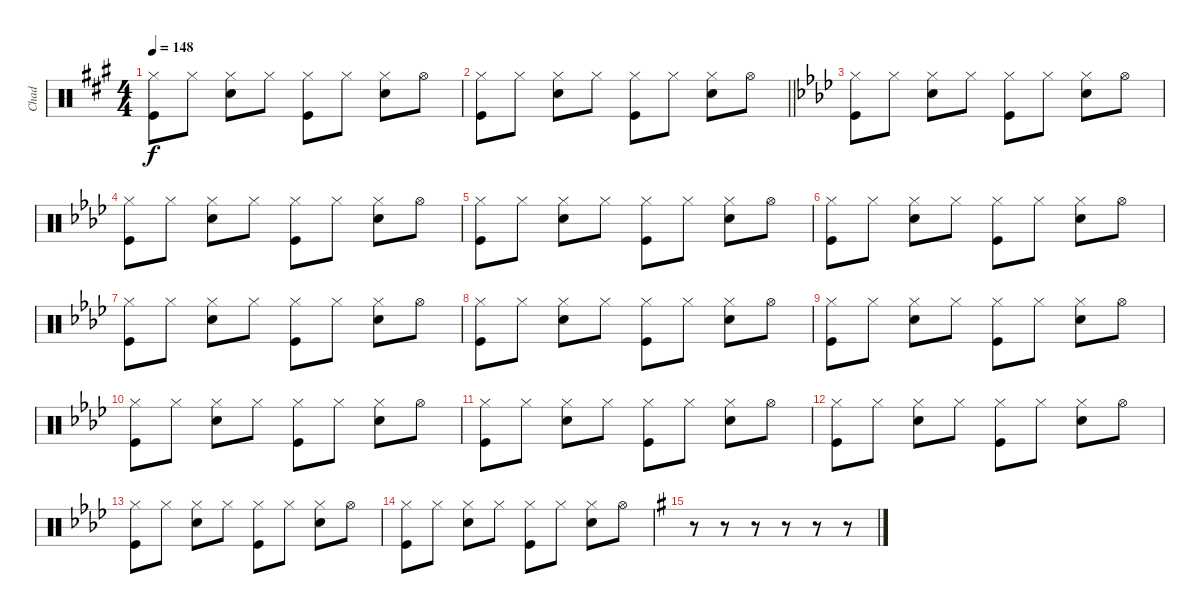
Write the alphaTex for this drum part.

\track ("Chad" "Chad") {instrument percussion}
\staff {score}
\articulation defaults
\ts (4 4)
\tempo 148
\clef neutral
\ks a
("Hi-Hat (closed)" "Kick (hit)").8{dy f} "Hi-Hat (closed)".8 ("Hi-Hat (closed)" "Snare (hit) 2").8 "Hi-Hat (closed)".8 ("Hi-Hat (closed)" "Kick (hit)").8 "Hi-Hat (closed)".8 ("Hi-Hat (closed)" "Snare (hit) 2").8 "Hi-Hat (open)".8 |
\barLineRight lightlight
("Hi-Hat (closed)" "Kick (hit)").8 "Hi-Hat (closed)".8 ("Hi-Hat (closed)" "Snare (hit) 2").8 "Hi-Hat (closed)".8 ("Hi-Hat (closed)" "Kick (hit)").8 "Hi-Hat (closed)".8 ("Hi-Hat (closed)" "Snare (hit) 2").8 "Hi-Hat (open)".8 |
\ks ab
("Hi-Hat (closed)" "Kick (hit)").8 "Hi-Hat (closed)".8 ("Hi-Hat (closed)" "Snare (hit) 2").8 "Hi-Hat (closed)".8 ("Hi-Hat (closed)" "Kick (hit)").8 "Hi-Hat (closed)".8 ("Hi-Hat (closed)" "Snare (hit) 2").8 "Hi-Hat (open)".8 |
("Hi-Hat (closed)" "Kick (hit)").8 "Hi-Hat (closed)".8 ("Hi-Hat (closed)" "Snare (hit) 2").8 "Hi-Hat (closed)".8 ("Hi-Hat (closed)" "Kick (hit)").8 "Hi-Hat (closed)".8 ("Hi-Hat (closed)" "Snare (hit) 2").8 "Hi-Hat (open)".8 |
("Hi-Hat (closed)" "Kick (hit)").8 "Hi-Hat (closed)".8 ("Hi-Hat (closed)" "Snare (hit) 2").8 "Hi-Hat (closed)".8 ("Hi-Hat (closed)" "Kick (hit)").8 "Hi-Hat (closed)".8 ("Hi-Hat (closed)" "Snare (hit) 2").8 "Hi-Hat (open)".8 |
("Hi-Hat (closed)" "Kick (hit)").8 "Hi-Hat (closed)".8 ("Hi-Hat (closed)" "Snare (hit) 2").8 "Hi-Hat (closed)".8 ("Hi-Hat (closed)" "Kick (hit)").8 "Hi-Hat (closed)".8 ("Hi-Hat (closed)" "Snare (hit) 2").8 "Hi-Hat (open)".8 |
("Hi-Hat (closed)" "Kick (hit)").8 "Hi-Hat (closed)".8 ("Hi-Hat (closed)" "Snare (hit) 2").8 "Hi-Hat (closed)".8 ("Hi-Hat (closed)" "Kick (hit)").8 "Hi-Hat (closed)".8 ("Hi-Hat (closed)" "Snare (hit) 2").8 "Hi-Hat (open)".8 |
("Hi-Hat (closed)" "Kick (hit)").8 "Hi-Hat (closed)".8 ("Hi-Hat (closed)" "Snare (hit) 2").8 "Hi-Hat (closed)".8 ("Hi-Hat (closed)" "Kick (hit)").8 "Hi-Hat (closed)".8 ("Hi-Hat (closed)" "Snare (hit) 2").8 "Hi-Hat (open)".8 |
("Hi-Hat (closed)" "Kick (hit)").8 "Hi-Hat (closed)".8 ("Hi-Hat (closed)" "Snare (hit) 2").8 "Hi-Hat (closed)".8 ("Hi-Hat (closed)" "Kick (hit)").8 "Hi-Hat (closed)".8 ("Hi-Hat (closed)" "Snare (hit) 2").8 "Hi-Hat (open)".8 |
("Hi-Hat (closed)" "Kick (hit)").8 "Hi-Hat (closed)".8 ("Hi-Hat (closed)" "Snare (hit) 2").8 "Hi-Hat (closed)".8 ("Hi-Hat (closed)" "Kick (hit)").8 "Hi-Hat (closed)".8 ("Hi-Hat (closed)" "Snare (hit) 2").8 "Hi-Hat (open)".8 |
("Hi-Hat (closed)" "Kick (hit)").8 "Hi-Hat (closed)".8 ("Hi-Hat (closed)" "Snare (hit) 2").8 "Hi-Hat (closed)".8 ("Hi-Hat (closed)" "Kick (hit)").8 "Hi-Hat (closed)".8 ("Hi-Hat (closed)" "Snare (hit) 2").8 "Hi-Hat (open)".8 |
("Hi-Hat (closed)" "Kick (hit)").8 "Hi-Hat (closed)".8 ("Hi-Hat (closed)" "Snare (hit) 2").8 "Hi-Hat (closed)".8 ("Hi-Hat (closed)" "Kick (hit)").8 "Hi-Hat (closed)".8 ("Hi-Hat (closed)" "Snare (hit) 2").8 "Hi-Hat (open)".8 |
("Hi-Hat (closed)" "Kick (hit)").8 "Hi-Hat (closed)".8 ("Hi-Hat (closed)" "Snare (hit) 2").8 "Hi-Hat (closed)".8 ("Hi-Hat (closed)" "Kick (hit)").8 "Hi-Hat (closed)".8 ("Hi-Hat (closed)" "Snare (hit) 2").8 "Hi-Hat (open)".8 |
("Hi-Hat (closed)" "Kick (hit)").8 "Hi-Hat (closed)".8 ("Hi-Hat (closed)" "Snare (hit) 2").8 "Hi-Hat (closed)".8 ("Hi-Hat (closed)" "Kick (hit)").8 "Hi-Hat (closed)".8 ("Hi-Hat (closed)" "Snare (hit) 2").8 "Hi-Hat (open)".8 |
\ks g
r.8 r.8 r.8 r.8 r.8 r.8
